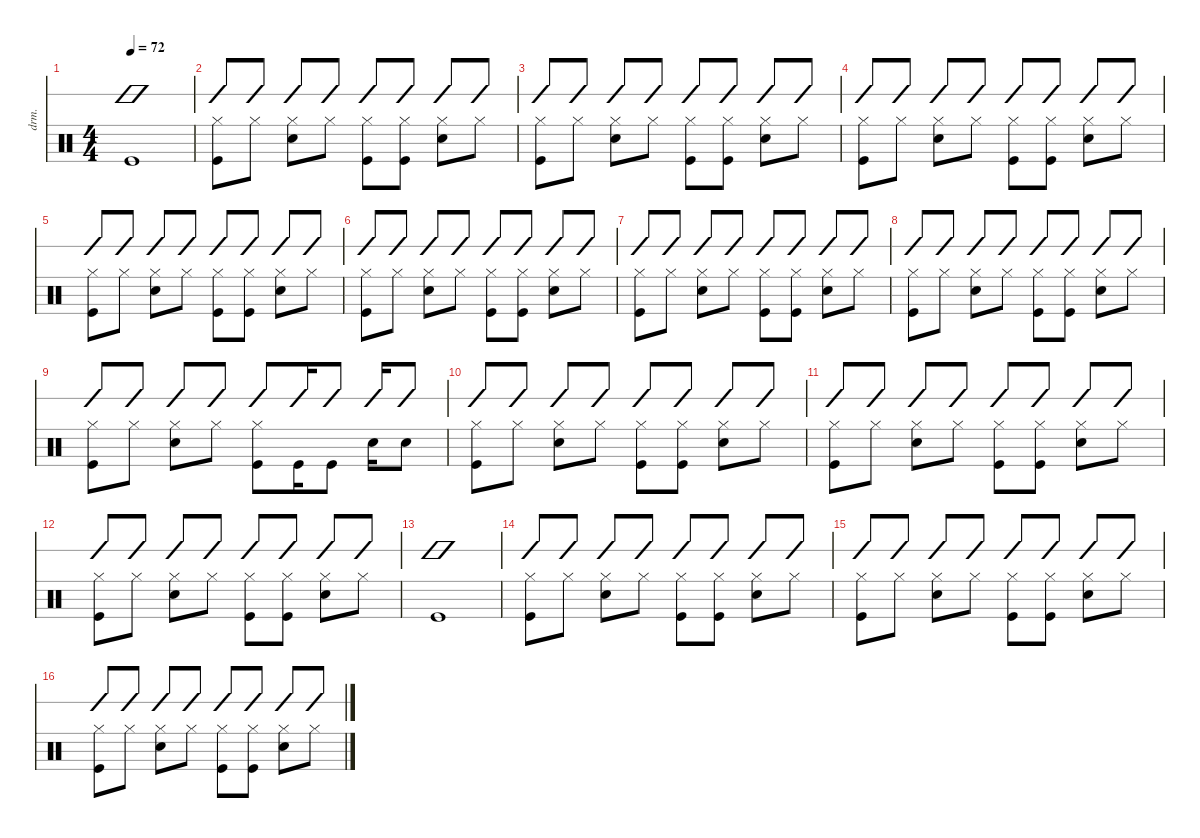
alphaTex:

\defaultSystemsLayout 4
\hideDynamics
\bracketExtendMode nobrackets
\otherSystemsTrackNameOrientation horizontal
\track ("Drumkit" "drm.") {instrument percussion}
\staff {score slash}
\articulation defaults
\ts (4 4)
\tempo 72
\clef neutral
\ks c "Kick (hit)".1{dy mf beam Up}
|
("Hi-Hat (closed)" "Kick (hit)").8{beam Down} "Hi-Hat (closed)".8{beam Down} ("Hi-Hat (closed)" "Snare (hit) 2").8{beam Down} "Hi-Hat (closed)".8{beam Down} ("Hi-Hat (closed)" "Kick (hit)").8{beam Down} ("Hi-Hat (closed)" "Kick (hit)").8{beam Down} ("Hi-Hat (closed)" "Snare (hit) 2").8{beam Down} "Hi-Hat (closed)".8{beam Down} |
("Hi-Hat (closed)" "Kick (hit)").8{beam Down} "Hi-Hat (closed)".8{beam Down} ("Hi-Hat (closed)" "Snare (hit) 2").8{beam Down} "Hi-Hat (closed)".8{beam Down} ("Hi-Hat (closed)" "Kick (hit)").8{beam Down} ("Hi-Hat (closed)" "Kick (hit)").8{beam Down} ("Hi-Hat (closed)" "Snare (hit) 2").8{beam Down} "Hi-Hat (closed)".8{beam Down} |
("Hi-Hat (closed)" "Kick (hit)").8{beam Down} "Hi-Hat (closed)".8{beam Down} ("Hi-Hat (closed)" "Snare (hit) 2").8{beam Down} "Hi-Hat (closed)".8{beam Down} ("Hi-Hat (closed)" "Kick (hit)").8{beam Down} ("Hi-Hat (closed)" "Kick (hit)").8{beam Down} ("Hi-Hat (closed)" "Snare (hit) 2").8{beam Down} "Hi-Hat (closed)".8{beam Down} |
("Hi-Hat (closed)" "Kick (hit)").8{beam Down} "Hi-Hat (closed)".8{beam Down} ("Hi-Hat (closed)" "Snare (hit) 2").8{beam Down} "Hi-Hat (closed)".8{beam Down} ("Hi-Hat (closed)" "Kick (hit)").8{beam Down} ("Hi-Hat (closed)" "Kick (hit)").8{beam Down} ("Hi-Hat (closed)" "Snare (hit) 2").8{beam Down} "Hi-Hat (closed)".8{beam Down} |
("Hi-Hat (closed)" "Kick (hit)").8{beam Down} "Hi-Hat (closed)".8{beam Down} ("Hi-Hat (closed)" "Snare (hit) 2").8{beam Down} "Hi-Hat (closed)".8{beam Down} ("Hi-Hat (closed)" "Kick (hit)").8{beam Down} ("Hi-Hat (closed)" "Kick (hit)").8{beam Down} ("Hi-Hat (closed)" "Snare (hit) 2").8{beam Down} "Hi-Hat (closed)".8{beam Down} |
("Hi-Hat (closed)" "Kick (hit)").8{beam Down} "Hi-Hat (closed)".8{beam Down} ("Hi-Hat (closed)" "Snare (hit) 2").8{beam Down} "Hi-Hat (closed)".8{beam Down} ("Hi-Hat (closed)" "Kick (hit)").8{beam Down} ("Hi-Hat (closed)" "Kick (hit)").8{beam Down} ("Hi-Hat (closed)" "Snare (hit) 2").8{beam Down} "Hi-Hat (closed)".8{beam Down} |
("Hi-Hat (closed)" "Kick (hit)").8{beam Down} "Hi-Hat (closed)".8{beam Down} ("Hi-Hat (closed)" "Snare (hit) 2").8{beam Down} "Hi-Hat (closed)".8{beam Down} ("Hi-Hat (closed)" "Kick (hit)").8{beam Down} ("Hi-Hat (closed)" "Kick (hit)").8{beam Down} ("Hi-Hat (closed)" "Snare (hit) 2").8{beam Down} "Hi-Hat (closed)".8{beam Down} |
("Hi-Hat (closed)" "Kick (hit)").8{beam Down} "Hi-Hat (closed)".8{beam Down} ("Hi-Hat (closed)" "Snare (hit) 2").8{beam Down} "Hi-Hat (closed)".8{beam Down} ("Hi-Hat (closed)" "Kick (hit)").8{beam Down} "Kick (hit)".16{beam Down} "Kick (hit)".8{beam Down} "Snare (hit) 2".16{beam Down} "Snare (hit) 2".8{beam Down} |
("Hi-Hat (closed)" "Kick (hit)").8{beam Down} "Hi-Hat (closed)".8{beam Down} ("Hi-Hat (closed)" "Snare (hit) 2").8{beam Down} "Hi-Hat (closed)".8{beam Down} ("Hi-Hat (closed)" "Kick (hit)").8{beam Down} ("Hi-Hat (closed)" "Kick (hit)").8{beam Down} ("Hi-Hat (closed)" "Snare (hit) 2").8{beam Down} "Hi-Hat (closed)".8{beam Down} |
("Hi-Hat (closed)" "Kick (hit)").8{beam Down} "Hi-Hat (closed)".8{beam Down} ("Hi-Hat (closed)" "Snare (hit) 2").8{beam Down} "Hi-Hat (closed)".8{beam Down} ("Hi-Hat (closed)" "Kick (hit)").8{beam Down} ("Hi-Hat (closed)" "Kick (hit)").8{beam Down} ("Hi-Hat (closed)" "Snare (hit) 2").8{beam Down} "Hi-Hat (closed)".8{beam Down} |
("Hi-Hat (closed)" "Kick (hit)").8{beam Down} "Hi-Hat (closed)".8{beam Down} ("Hi-Hat (closed)" "Snare (hit) 2").8{beam Down} "Hi-Hat (closed)".8{beam Down} ("Hi-Hat (closed)" "Kick (hit)").8{beam Down} ("Hi-Hat (closed)" "Kick (hit)").8{beam Down} ("Hi-Hat (closed)" "Snare (hit) 2").8{beam Down} "Hi-Hat (closed)".8{beam Down} |
"Kick (hit)".1{beam Up} |
("Hi-Hat (closed)" "Kick (hit)").8{beam Down} "Hi-Hat (closed)".8{beam Down} ("Hi-Hat (closed)" "Snare (hit) 2").8{beam Down} "Hi-Hat (closed)".8{beam Down} ("Hi-Hat (closed)" "Kick (hit)").8{beam Down} ("Hi-Hat (closed)" "Kick (hit)").8{beam Down} ("Hi-Hat (closed)" "Snare (hit) 2").8{beam Down} "Hi-Hat (closed)".8{beam Down} |
("Hi-Hat (closed)" "Kick (hit)").8{beam Down} "Hi-Hat (closed)".8{beam Down} ("Hi-Hat (closed)" "Snare (hit) 2").8{beam Down} "Hi-Hat (closed)".8{beam Down} ("Hi-Hat (closed)" "Kick (hit)").8{beam Down} ("Hi-Hat (closed)" "Kick (hit)").8{beam Down} ("Hi-Hat (closed)" "Snare (hit) 2").8{beam Down} "Hi-Hat (closed)".8{beam Down} |
("Hi-Hat (closed)" "Kick (hit)").8{beam Down} "Hi-Hat (closed)".8{beam Down} ("Hi-Hat (closed)" "Snare (hit) 2").8{beam Down} "Hi-Hat (closed)".8{beam Down} ("Hi-Hat (closed)" "Kick (hit)").8{beam Down} ("Hi-Hat (closed)" "Kick (hit)").8{beam Down} ("Hi-Hat (closed)" "Snare (hit) 2").8{beam Down} "Hi-Hat (closed)".8{beam Down}
